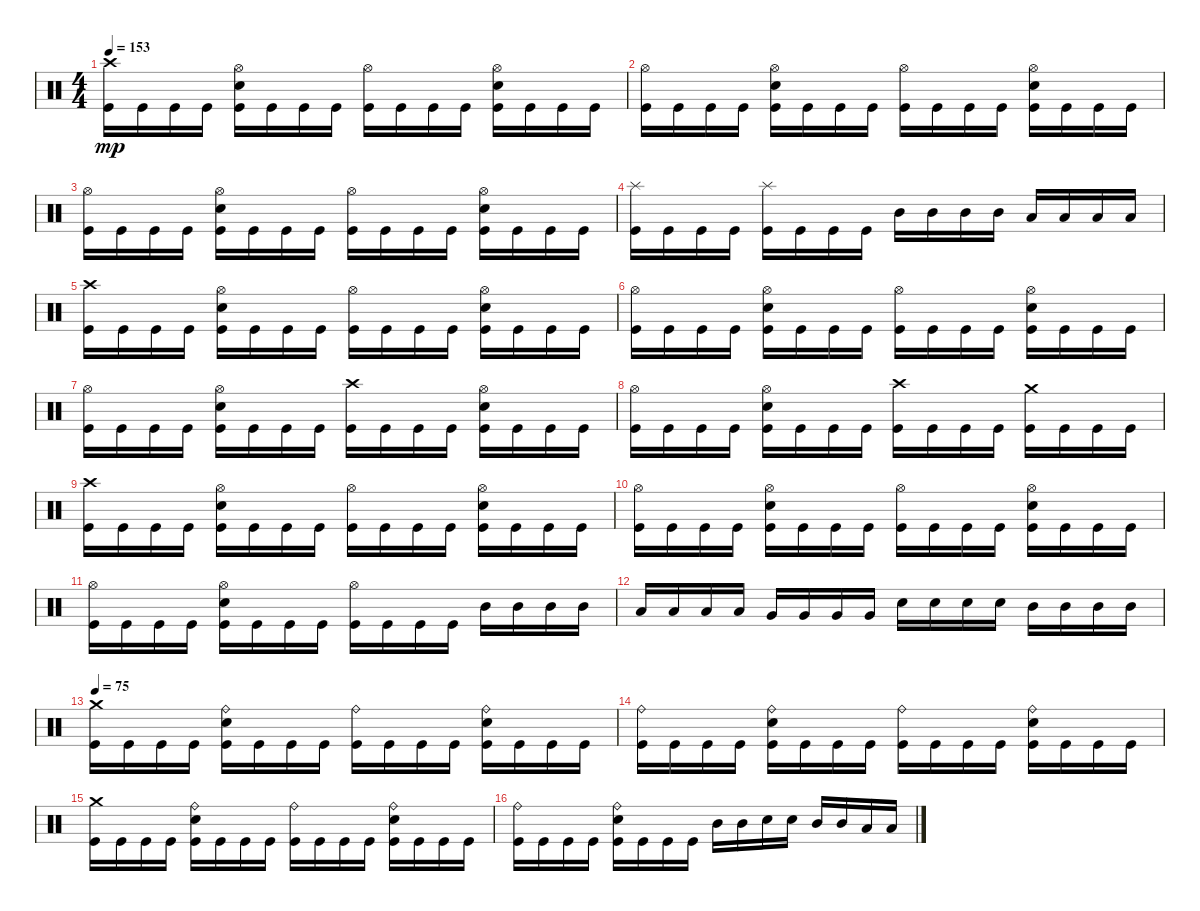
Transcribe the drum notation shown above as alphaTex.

\track "" {instrument percussion}
\staff {score}
\articulation defaults
\ts (4 4)
\tempo 153
\clef neutral
\ks c
("Kick (hit)" "Crash high (hit)").16{dy mp} "Kick (hit)".16 "Kick (hit)".16 "Kick (hit)".16 ("Kick (hit)" "Snare (hit) 2" "Hi-Hat (open)").16 "Kick (hit)".16 "Kick (hit)".16 "Kick (hit)".16 ("Kick (hit)" "Hi-Hat (open)").16 "Kick (hit)".16 "Kick (hit)".16 "Kick (hit)".16 ("Kick (hit)" "Snare (hit) 2" "Hi-Hat (open)").16 "Kick (hit)".16 "Kick (hit)".16 "Kick (hit)".16 |
("Kick (hit)" "Hi-Hat (open)").16 "Kick (hit)".16 "Kick (hit)".16 "Kick (hit)".16 ("Kick (hit)" "Snare (hit) 2" "Hi-Hat (open)").16 "Kick (hit)".16 "Kick (hit)".16 "Kick (hit)".16 ("Kick (hit)" "Hi-Hat (open)").16 "Kick (hit)".16 "Kick (hit)".16 "Kick (hit)".16 ("Kick (hit)" "Snare (hit) 2" "Hi-Hat (open)").16 "Kick (hit)".16 "Kick (hit)".16 "Kick (hit)".16 |
("Kick (hit)" "Hi-Hat (open)").16 "Kick (hit)".16 "Kick (hit)".16 "Kick (hit)".16 ("Kick (hit)" "Snare (hit) 2" "Hi-Hat (open)").16 "Kick (hit)".16 "Kick (hit)".16 "Kick (hit)".16 ("Kick (hit)" "Hi-Hat (open)").16 "Kick (hit)".16 "Kick (hit)".16 "Kick (hit)".16 ("Kick (hit)" "Snare (hit) 2" "Hi-Hat (open)").16 "Kick (hit)".16 "Kick (hit)".16 "Kick (hit)".16 |
("Splash (hit)" "Kick (hit)").16 "Kick (hit)".16 "Kick (hit)".16 "Kick (hit)".16 ("Splash (hit)" "Kick (hit)").16 "Kick (hit)".16 "Kick (hit)".16 "Kick (hit)".16 "Mid Tom (hit)".16 "Mid Tom (hit)".16 "Mid Tom (hit)".16 "Mid Tom (hit)".16 "Low Tom (hit)".16 "Low Tom (hit)".16 "Low Tom (hit)".16 "Low Tom (hit)".16 |
("Kick (hit)" "Crash high (hit)").16 "Kick (hit)".16 "Kick (hit)".16 "Kick (hit)".16 ("Kick (hit)" "Snare (hit) 2" "Hi-Hat (open)").16 "Kick (hit)".16 "Kick (hit)".16 "Kick (hit)".16 ("Kick (hit)" "Hi-Hat (open)").16 "Kick (hit)".16 "Kick (hit)".16 "Kick (hit)".16 ("Kick (hit)" "Snare (hit) 2" "Hi-Hat (open)").16 "Kick (hit)".16 "Kick (hit)".16 "Kick (hit)".16 |
("Kick (hit)" "Hi-Hat (open)").16 "Kick (hit)".16 "Kick (hit)".16 "Kick (hit)".16 ("Kick (hit)" "Snare (hit) 2" "Hi-Hat (open)").16 "Kick (hit)".16 "Kick (hit)".16 "Kick (hit)".16 ("Kick (hit)" "Hi-Hat (open)").16 "Kick (hit)".16 "Kick (hit)".16 "Kick (hit)".16 ("Kick (hit)" "Snare (hit) 2" "Hi-Hat (open)").16 "Kick (hit)".16 "Kick (hit)".16 "Kick (hit)".16 |
("Kick (hit)" "Hi-Hat (open)").16 "Kick (hit)".16 "Kick (hit)".16 "Kick (hit)".16 ("Kick (hit)" "Snare (hit) 2" "Hi-Hat (open)").16 "Kick (hit)".16 "Kick (hit)".16 "Kick (hit)".16 ("Kick (hit)" "Crash high (hit)").16 "Kick (hit)".16 "Kick (hit)".16 "Kick (hit)".16 ("Kick (hit)" "Snare (hit) 2" "Hi-Hat (open)").16 "Kick (hit)".16 "Kick (hit)".16 "Kick (hit)".16 |
("Hi-Hat (open)" "Kick (hit)").16 "Kick (hit)".16 "Kick (hit)".16 "Kick (hit)".16 ("Kick (hit)" "Snare (hit) 2" "Hi-Hat (open)").16 "Kick (hit)".16 "Kick (hit)".16 "Kick (hit)".16 ("Kick (hit)" "Crash high (hit)").16 "Kick (hit)".16 "Kick (hit)".16 "Kick (hit)".16 ("Kick (hit)" "Crash medium (hit)").16 "Kick (hit)".16 "Kick (hit)".16 "Kick (hit)".16 |
("Kick (hit)" "Crash high (hit)").16 "Kick (hit)".16 "Kick (hit)".16 "Kick (hit)".16 ("Kick (hit)" "Snare (hit) 2" "Hi-Hat (open)").16 "Kick (hit)".16 "Kick (hit)".16 "Kick (hit)".16 ("Kick (hit)" "Hi-Hat (open)").16 "Kick (hit)".16 "Kick (hit)".16 "Kick (hit)".16 ("Kick (hit)" "Snare (hit) 2" "Hi-Hat (open)").16 "Kick (hit)".16 "Kick (hit)".16 "Kick (hit)".16 |
("Kick (hit)" "Hi-Hat (open)").16 "Kick (hit)".16 "Kick (hit)".16 "Kick (hit)".16 ("Kick (hit)" "Snare (hit) 2" "Hi-Hat (open)").16 "Kick (hit)".16 "Kick (hit)".16 "Kick (hit)".16 ("Kick (hit)" "Hi-Hat (open)").16 "Kick (hit)".16 "Kick (hit)".16 "Kick (hit)".16 ("Kick (hit)" "Snare (hit) 2" "Hi-Hat (open)").16 "Kick (hit)".16 "Kick (hit)".16 "Kick (hit)".16 |
("Kick (hit)" "Hi-Hat (open)").16 "Kick (hit)".16 "Kick (hit)".16 "Kick (hit)".16 ("Kick (hit)" "Snare (hit) 2" "Hi-Hat (open)").16 "Kick (hit)".16 "Kick (hit)".16 "Kick (hit)".16 ("Kick (hit)" "Hi-Hat (open)").16 "Kick (hit)".16 "Kick (hit)".16 "Kick (hit)".16 "Mid Tom (hit)".16 "Mid Tom (hit)".16 "Mid Tom (hit)".16 "Mid Tom (hit)".16 |
"Low Tom (hit)".16 "Low Tom (hit)".16 "Low Tom (hit)".16 "Low Tom (hit)".16 "Very Low Tom (hit)".16 "Very Low Tom (hit)".16 "Very Low Tom (hit)".16 "Very Low Tom (hit)".16 "Snare (hit) 2".16 "Snare (hit) 2".16 "Snare (hit) 2".16 "Snare (hit) 2".16 "Mid Tom (hit)".16 "Mid Tom (hit)".16 "Mid Tom (hit)".16 "Mid Tom (hit)".16 |
\tempo 75
("Kick (hit)" "Crash medium (hit)").16 "Kick (hit)".16 "Kick (hit)".16 "Kick (hit)".16 ("Snare (hit) 2" "Ride (bell)" "Kick (hit)").16 "Kick (hit)".16 "Kick (hit)".16 "Kick (hit)".16 ("Kick (hit)" "Ride (bell)").16 "Kick (hit)".16 "Kick (hit)".16 "Kick (hit)".16 ("Snare (hit) 2" "Ride (bell)" "Kick (hit)").16 "Kick (hit)".16 "Kick (hit)".16 "Kick (hit)".16 |
("Kick (hit)" "Ride (bell)").16 "Kick (hit)".16 "Kick (hit)".16 "Kick (hit)".16 ("Snare (hit) 2" "Ride (bell)" "Kick (hit)").16 "Kick (hit)".16 "Kick (hit)".16 "Kick (hit)".16 ("Ride (bell)" "Kick (hit)").16 "Kick (hit)".16 "Kick (hit)".16 "Kick (hit)".16 ("Snare (hit) 2" "Ride (bell)" "Kick (hit)").16 "Kick (hit)".16 "Kick (hit)".16 "Kick (hit)".16 |
("Kick (hit)" "Crash medium (hit)").16 "Kick (hit)".16 "Kick (hit)".16 "Kick (hit)".16 ("Snare (hit) 2" "Ride (bell)" "Kick (hit)").16 "Kick (hit)".16 "Kick (hit)".16 "Kick (hit)".16 ("Kick (hit)" "Ride (bell)").16 "Kick (hit)".16 "Kick (hit)".16 "Kick (hit)".16 ("Snare (hit) 2" "Ride (bell)" "Kick (hit)").16 "Kick (hit)".16 "Kick (hit)".16 "Kick (hit)".16 |
("Kick (hit)" "Ride (bell)").16 "Kick (hit)".16 "Kick (hit)".16 "Kick (hit)".16 ("Snare (hit) 2" "Ride (bell)" "Kick (hit)").16 "Kick (hit)".16 "Kick (hit)".16 "Kick (hit)".16 "Mid Tom (hit)".16 "Mid Tom (hit)".16 "Snare (hit) 2".16 "Snare (hit) 2".16 "Mid Tom (hit)".16 "Mid Tom (hit)".16 "Low Tom (hit)".16 "Low Tom (hit)".16
